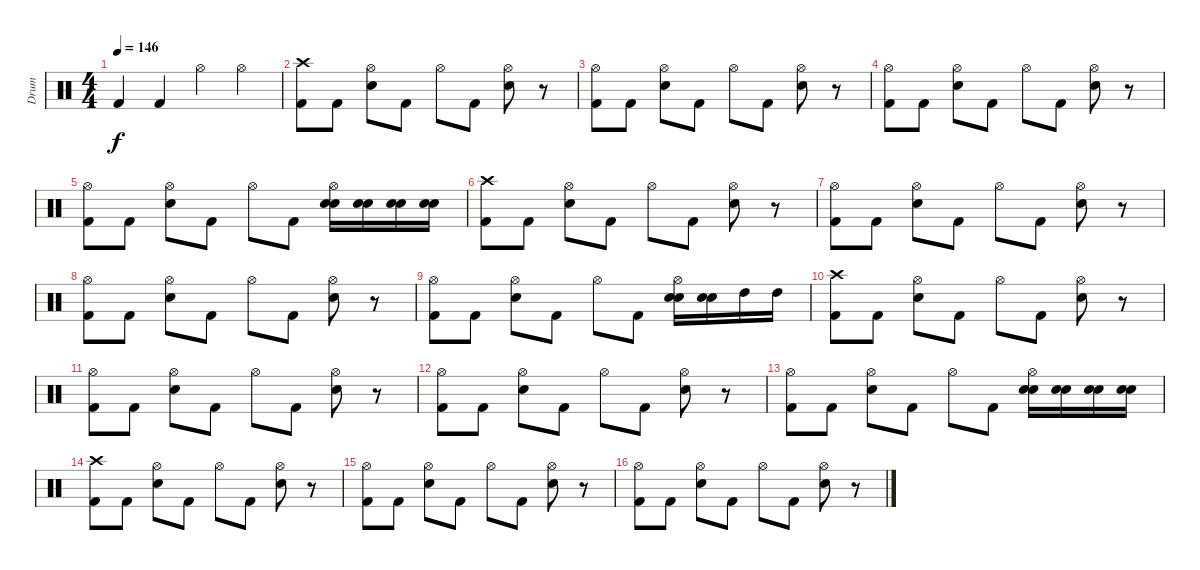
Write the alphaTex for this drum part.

\track ("Drum" "Drum") {instrument percussion}
\staff {score}
\articulation defaults
\ts (4 4)
\tempo 146
\clef neutral
\ks c "Kick (hit) 2".4{dy f} "Kick (hit) 2".4 "Hi-Hat (open)".4 "Hi-Hat (open)".4
|
("Crash high (hit)" "Kick (hit) 2").8 "Kick (hit) 2".8 ("Hi-Hat (open)" "Electric Snare (hit)").8 "Kick (hit) 2".8 "Hi-Hat (open)".8 "Kick (hit) 2".8 ("Hi-Hat (open)" "Electric Snare (hit)").8 r.8 |
("Hi-Hat (open)" "Kick (hit) 2").8 "Kick (hit) 2".8 ("Hi-Hat (open)" "Electric Snare (hit)").8 "Kick (hit) 2".8 "Hi-Hat (open)".8 "Kick (hit) 2".8 ("Hi-Hat (open)" "Electric Snare (hit)").8 r.8 |
("Hi-Hat (open)" "Kick (hit) 2").8 "Kick (hit) 2".8 ("Hi-Hat (open)" "Electric Snare (hit)").8 "Kick (hit) 2".8 "Hi-Hat (open)".8 "Kick (hit) 2".8 ("Hi-Hat (open)" "Electric Snare (hit)").8 r.8 |
("Hi-Hat (open)" "Kick (hit) 2").8 "Kick (hit) 2".8 ("Hi-Hat (open)" "Electric Snare (hit)").8 "Kick (hit) 2".8 "Hi-Hat (open)".8 "Kick (hit) 2".8 ("Hi-Hat (open)" "Electric Snare (hit)" "Electric Snare (hit)").16 ("Electric Snare (hit)" "Electric Snare (hit)").16 ("Electric Snare (hit)" "Electric Snare (hit)").16 ("Electric Snare (hit)" "Electric Snare (hit)").16 |
("Crash high (hit)" "Kick (hit) 2").8 "Kick (hit) 2".8 ("Hi-Hat (open)" "Electric Snare (hit)").8 "Kick (hit) 2".8 "Hi-Hat (open)".8 "Kick (hit) 2".8 ("Hi-Hat (open)" "Electric Snare (hit)").8 r.8 |
("Hi-Hat (open)" "Kick (hit) 2").8 "Kick (hit) 2".8 ("Hi-Hat (open)" "Electric Snare (hit)").8 "Kick (hit) 2".8 "Hi-Hat (open)".8 "Kick (hit) 2".8 ("Hi-Hat (open)" "Electric Snare (hit)").8 r.8 |
("Hi-Hat (open)" "Kick (hit) 2").8 "Kick (hit) 2".8 ("Hi-Hat (open)" "Electric Snare (hit)").8 "Kick (hit) 2".8 "Hi-Hat (open)".8 "Kick (hit) 2".8 ("Hi-Hat (open)" "Electric Snare (hit)").8 r.8 |
("Hi-Hat (open)" "Kick (hit) 2").8 "Kick (hit) 2".8 ("Hi-Hat (open)" "Electric Snare (hit)").8 "Kick (hit) 2".8 "Hi-Hat (open)".8 "Kick (hit) 2".8 ("Hi-Hat (open)" "Electric Snare (hit)" "Electric Snare (hit)").16 ("Electric Snare (hit)" "Electric Snare (hit)").16 "High Tom (hit)".16 "High Tom (hit)".16 |
("Crash high (hit)" "Kick (hit) 2").8 "Kick (hit) 2".8 ("Hi-Hat (open)" "Electric Snare (hit)").8 "Kick (hit) 2".8 "Hi-Hat (open)".8 "Kick (hit) 2".8 ("Hi-Hat (open)" "Electric Snare (hit)").8 r.8 |
("Hi-Hat (open)" "Kick (hit) 2").8 "Kick (hit) 2".8 ("Hi-Hat (open)" "Electric Snare (hit)").8 "Kick (hit) 2".8 "Hi-Hat (open)".8 "Kick (hit) 2".8 ("Hi-Hat (open)" "Electric Snare (hit)").8 r.8 |
("Hi-Hat (open)" "Kick (hit) 2").8 "Kick (hit) 2".8 ("Hi-Hat (open)" "Electric Snare (hit)").8 "Kick (hit) 2".8 "Hi-Hat (open)".8 "Kick (hit) 2".8 ("Hi-Hat (open)" "Electric Snare (hit)").8 r.8 |
("Hi-Hat (open)" "Kick (hit) 2").8 "Kick (hit) 2".8 ("Hi-Hat (open)" "Electric Snare (hit)").8 "Kick (hit) 2".8 "Hi-Hat (open)".8 "Kick (hit) 2".8 ("Hi-Hat (open)" "Electric Snare (hit)" "Electric Snare (hit)").16 ("Electric Snare (hit)" "Electric Snare (hit)").16 ("Electric Snare (hit)" "Electric Snare (hit)").16 ("Electric Snare (hit)" "Electric Snare (hit)").16 |
("Crash high (hit)" "Kick (hit) 2").8 "Kick (hit) 2".8 ("Hi-Hat (open)" "Electric Snare (hit)").8 "Kick (hit) 2".8 "Hi-Hat (open)".8 "Kick (hit) 2".8 ("Hi-Hat (open)" "Electric Snare (hit)").8 r.8 |
("Hi-Hat (open)" "Kick (hit) 2").8 "Kick (hit) 2".8 ("Hi-Hat (open)" "Electric Snare (hit)").8 "Kick (hit) 2".8 "Hi-Hat (open)".8 "Kick (hit) 2".8 ("Hi-Hat (open)" "Electric Snare (hit)").8 r.8 |
("Hi-Hat (open)" "Kick (hit) 2").8 "Kick (hit) 2".8 ("Hi-Hat (open)" "Electric Snare (hit)").8 "Kick (hit) 2".8 "Hi-Hat (open)".8 "Kick (hit) 2".8 ("Hi-Hat (open)" "Electric Snare (hit)").8 r.8
